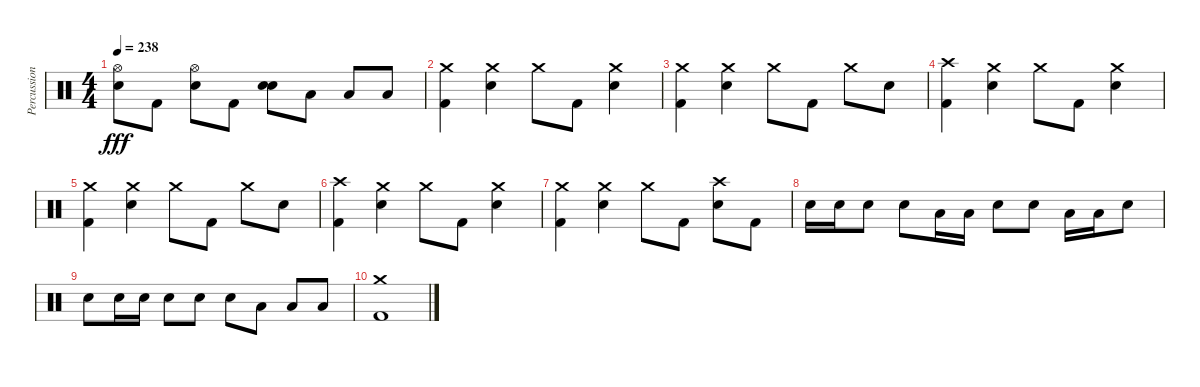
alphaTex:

\track ("Percussion" "Percussion") {instrument percussion}
\staff {score}
\articulation defaults
\ts (4 4)
\tempo 238
\clef neutral
\ks c
("Hi-Hat (open)" "Electric Snare (hit)").8{dy fff} "Kick (hit) 2".8 ("Hi-Hat (open)" "Electric Snare (hit)").8 "Kick (hit) 2".8 ("Electric Snare (hit)" "Electric Snare (hit)").8{bd 480} "Low Tom (hit)".8 "Low Floor Tom (hit)".8 "Low Floor Tom (hit)".8 |
("Crash medium (hit)" "Kick (hit) 2").4 ("Crash medium (hit)" "Electric Snare (hit)").4 "Crash medium (hit)".8 "Kick (hit) 2".8 ("Crash medium (hit)" "Electric Snare (hit)").4 |
("Crash medium (hit)" "Kick (hit) 2").4 ("Crash medium (hit)" "Electric Snare (hit)").4 "Crash medium (hit)".8 "Kick (hit) 2".8 "Crash medium (hit)".8 "Electric Snare (hit)".8 |
("Crash high (hit)" "Kick (hit) 2").4 ("Crash medium (hit)" "Electric Snare (hit)").4 "Crash medium (hit)".8 "Kick (hit) 2".8 ("Crash medium (hit)" "Electric Snare (hit)").4 |
("Crash medium (hit)" "Kick (hit) 2").4 ("Crash medium (hit)" "Electric Snare (hit)").4 "Crash medium (hit)".8 "Kick (hit) 2".8 "Crash medium (hit)".8 "Electric Snare (hit)".8 |
("Crash high (hit)" "Kick (hit) 2").4 ("Crash medium (hit)" "Electric Snare (hit)").4 "Crash medium (hit)".8 "Kick (hit) 2".8 ("Crash medium (hit)" "Electric Snare (hit)").4 |
("Crash medium (hit)" "Kick (hit) 2").4 ("Crash medium (hit)" "Electric Snare (hit)").4 "Crash medium (hit)".8 "Kick (hit) 2".8 ("Crash high (hit)" "Electric Snare (hit)").8 "Kick (hit) 2".8 |
"Electric Snare (hit)".16 "Electric Snare (hit)".16 "Electric Snare (hit)".8 "Electric Snare (hit)".8 "Low Tom (hit)".16 "Low Tom (hit)".16 "Electric Snare (hit)".8 "Electric Snare (hit)".8 "Low Tom (hit)".16 "Low Tom (hit)".16 "Electric Snare (hit)".8 |
"Electric Snare (hit)".8 "Electric Snare (hit)".16 "Electric Snare (hit)".16 "Electric Snare (hit)".8 "Electric Snare (hit)".8 "Electric Snare (hit)".8 "Low Tom (hit)".8 "Low Floor Tom (hit)".8 "Low Floor Tom (hit)".8 |
("Crash medium (hit)" "Kick (hit) 2").1
